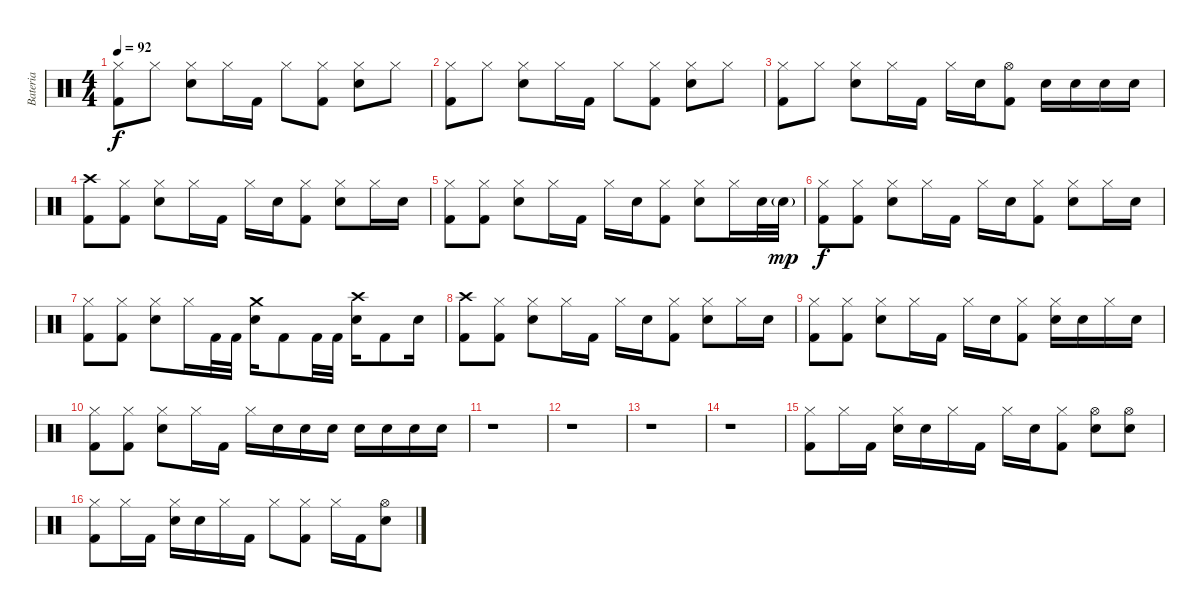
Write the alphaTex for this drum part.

\track ("Bateria" "Bateria") {instrument percussion}
\staff {score}
\articulation defaults
\ts (4 4)
\tempo 92
\clef neutral
\ks c
("Hi-Hat (closed)" "Kick (hit) 2").8{dy f} "Hi-Hat (closed)".8 ("Electric Snare (hit)" "Hi-Hat (closed)").8 "Hi-Hat (closed)".16 "Kick (hit) 2".16 "Hi-Hat (closed)".8 ("Hi-Hat (closed)" "Kick (hit) 2").8 ("Electric Snare (hit)" "Hi-Hat (closed)").8 "Hi-Hat (closed)".8 |
("Hi-Hat (closed)" "Kick (hit) 2").8 "Hi-Hat (closed)".8 ("Electric Snare (hit)" "Hi-Hat (closed)").8 "Hi-Hat (closed)".16 "Kick (hit) 2".16 "Hi-Hat (closed)".8 ("Hi-Hat (closed)" "Kick (hit) 2").8 ("Electric Snare (hit)" "Hi-Hat (closed)").8 "Hi-Hat (closed)".8 |
("Hi-Hat (closed)" "Kick (hit) 2").8 "Hi-Hat (closed)".8 ("Electric Snare (hit)" "Hi-Hat (closed)").8 "Hi-Hat (closed)".16 "Kick (hit) 2".16 "Hi-Hat (closed)".16 "Electric Snare (hit)".16 ("Hi-Hat (open)" "Kick (hit) 2").8 "Electric Snare (hit)".16 "Electric Snare (hit)".16 "Electric Snare (hit)".16 "Electric Snare (hit)".16 |
("Crash high (hit)" "Kick (hit) 2").8 ("Hi-Hat (closed)" "Kick (hit) 2").8 ("Electric Snare (hit)" "Hi-Hat (closed)").8 "Hi-Hat (closed)".16 "Kick (hit) 2".16 "Hi-Hat (closed)".16 "Electric Snare (hit)".16 ("Hi-Hat (closed)" "Kick (hit) 2").8 ("Electric Snare (hit)" "Hi-Hat (closed)").8 "Hi-Hat (closed)".16 "Electric Snare (hit)".16 |
("Hi-Hat (closed)" "Kick (hit) 2").8 ("Hi-Hat (closed)" "Kick (hit) 2").8 ("Electric Snare (hit)" "Hi-Hat (closed)").8 "Hi-Hat (closed)".16 "Kick (hit) 2".16 "Hi-Hat (closed)".16 "Electric Snare (hit)".16 ("Hi-Hat (closed)" "Kick (hit) 2").8 ("Electric Snare (hit)" "Hi-Hat (closed)").8 "Hi-Hat (closed)".16 "Electric Snare (hit)".32 "Electric Snare (hit)"{g}.32{dy mp} |
("Hi-Hat (closed)" "Kick (hit) 2").8{dy f} ("Hi-Hat (closed)" "Kick (hit) 2").8 ("Electric Snare (hit)" "Hi-Hat (closed)").8 "Hi-Hat (closed)".16 "Kick (hit) 2".16 "Hi-Hat (closed)".16 "Electric Snare (hit)".16 ("Hi-Hat (closed)" "Kick (hit) 2").8 ("Electric Snare (hit)" "Hi-Hat (closed)").8 "Hi-Hat (closed)".16 "Electric Snare (hit)".16 |
("Hi-Hat (closed)" "Kick (hit) 2").8 ("Hi-Hat (closed)" "Kick (hit) 2").8 ("Electric Snare (hit)" "Hi-Hat (closed)").8 "Hi-Hat (closed)".16 "Kick (hit) 2".32 "Kick (hit) 2".32 ("Crash medium (hit)" "Electric Snare (hit)").16 "Kick (hit) 2".8 "Kick (hit) 2".32 "Kick (hit) 2".32 ("Crash high (hit)" "Electric Snare (hit)").16 "Kick (hit) 2".8 "Electric Snare (hit)".16 |
("Crash high (hit)" "Kick (hit) 2").8 ("Hi-Hat (closed)" "Kick (hit) 2").8 ("Electric Snare (hit)" "Hi-Hat (closed)").8 "Hi-Hat (closed)".16 "Kick (hit) 2".16 "Hi-Hat (closed)".16 "Electric Snare (hit)".16 ("Hi-Hat (closed)" "Kick (hit) 2").8 ("Electric Snare (hit)" "Hi-Hat (closed)").8 "Hi-Hat (closed)".16 "Electric Snare (hit)".16 |
("Hi-Hat (closed)" "Kick (hit) 2").8 ("Hi-Hat (closed)" "Kick (hit) 2").8 ("Electric Snare (hit)" "Hi-Hat (closed)").8 "Hi-Hat (closed)".16 "Kick (hit) 2".16 "Hi-Hat (closed)".16 "Electric Snare (hit)".16 ("Hi-Hat (closed)" "Kick (hit) 2").8 ("Electric Snare (hit)" "Hi-Hat (closed)").16 "Electric Snare (hit)".16 "Hi-Hat (closed)".16 "Electric Snare (hit)".16 |
("Hi-Hat (closed)" "Kick (hit) 2").8 ("Hi-Hat (closed)" "Kick (hit) 2").8 ("Electric Snare (hit)" "Hi-Hat (closed)").8 "Hi-Hat (closed)".16 "Kick (hit) 2".16 "Hi-Hat (closed)".16 "Electric Snare (hit)".16 "Electric Snare (hit)".16 "Electric Snare (hit)".16 "Electric Snare (hit)".16 "Electric Snare (hit)".16 "Electric Snare (hit)".16 "Electric Snare (hit)".16 |
r.1 |
r.1 |
r.1 |
r.1 |
("Hi-Hat (closed)" "Kick (hit) 2").8 "Hi-Hat (closed)".16 "Kick (hit) 2".16 ("Electric Snare (hit)" "Hi-Hat (closed)").16 "Electric Snare (hit)".16 "Hi-Hat (closed)".16 "Kick (hit) 2".16 "Hi-Hat (closed)".16 "Electric Snare (hit)".16 ("Hi-Hat (closed)" "Kick (hit) 2").8 ("Electric Snare (hit)" "Hi-Hat (open)").8 ("Electric Snare (hit)" "Hi-Hat (open)").8 |
("Hi-Hat (closed)" "Kick (hit) 2").8 "Hi-Hat (closed)".16 "Kick (hit) 2".16 ("Electric Snare (hit)" "Hi-Hat (closed)").16 "Electric Snare (hit)".16 "Hi-Hat (closed)".16 "Kick (hit) 2".16 "Hi-Hat (closed)".8 ("Hi-Hat (closed)" "Kick (hit) 2").8 "Hi-Hat (closed)".16 "Kick (hit) 2".16 ("Electric Snare (hit)" "Hi-Hat (open)").8
